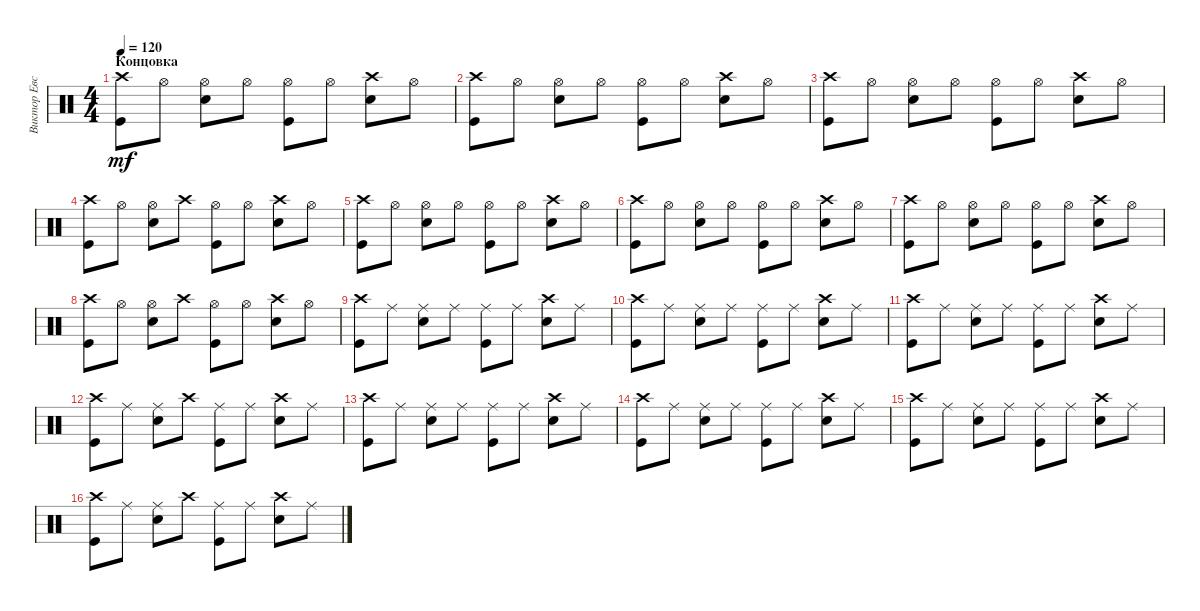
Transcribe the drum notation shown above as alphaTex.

\track ("Виктор Евстратов" "Виктор Евс") {instrument percussion}
\staff {score}
\articulation defaults
\ts (4 4)
\section ("" "Концовка")
\tempo 120
\clef neutral
\ks c
("Kick (hit)" "Crash high (hit)").8{dy mf} "Hi-Hat (open)".8 ("Snare (hit) 2" "Hi-Hat (open)").8 "Hi-Hat (open)".8 ("Kick (hit)" "Hi-Hat (open)").8 "Hi-Hat (open)".8 ("Snare (hit) 2" "Crash high (hit)").8 "Hi-Hat (open)".8 |
("Kick (hit)" "Crash high (hit)").8 "Hi-Hat (open)".8 ("Snare (hit) 2" "Hi-Hat (open)").8 "Hi-Hat (open)".8 ("Kick (hit)" "Hi-Hat (open)").8 "Hi-Hat (open)".8 ("Snare (hit) 2" "Crash high (hit)").8 "Hi-Hat (open)".8 |
("Kick (hit)" "Crash high (hit)").8 "Hi-Hat (open)".8 ("Snare (hit) 2" "Hi-Hat (open)").8 "Hi-Hat (open)".8 ("Kick (hit)" "Hi-Hat (open)").8 "Hi-Hat (open)".8 ("Snare (hit) 2" "Crash high (hit)").8 "Hi-Hat (open)".8 |
("Kick (hit)" "Crash high (hit)").8 "Hi-Hat (open)".8 ("Snare (hit) 2" "Hi-Hat (open)").8 "Crash high (hit)".8 ("Kick (hit)" "Hi-Hat (open)").8 "Hi-Hat (open)".8 ("Snare (hit) 2" "Crash high (hit)").8 "Hi-Hat (open)".8 |
("Kick (hit)" "Crash high (hit)").8 "Hi-Hat (open)".8 ("Snare (hit) 2" "Hi-Hat (open)").8 "Hi-Hat (open)".8 ("Kick (hit)" "Hi-Hat (open)").8 "Hi-Hat (open)".8 ("Snare (hit) 2" "Crash high (hit)").8 "Hi-Hat (open)".8 |
("Kick (hit)" "Crash high (hit)").8 "Hi-Hat (open)".8 ("Snare (hit) 2" "Hi-Hat (open)").8 "Hi-Hat (open)".8 ("Kick (hit)" "Hi-Hat (open)").8 "Hi-Hat (open)".8 ("Snare (hit) 2" "Crash high (hit)").8 "Hi-Hat (open)".8 |
("Kick (hit)" "Crash high (hit)").8 "Hi-Hat (open)".8 ("Snare (hit) 2" "Hi-Hat (open)").8 "Hi-Hat (open)".8 ("Kick (hit)" "Hi-Hat (open)").8 "Hi-Hat (open)".8 ("Snare (hit) 2" "Crash high (hit)").8 "Hi-Hat (open)".8 |
("Kick (hit)" "Crash high (hit)").8 "Hi-Hat (open)".8 ("Snare (hit) 2" "Hi-Hat (open)").8 "Crash high (hit)".8 ("Kick (hit)" "Hi-Hat (open)").8 "Hi-Hat (open)".8 ("Snare (hit) 2" "Crash high (hit)").8 "Hi-Hat (open)".8 |
("Kick (hit)" "Crash high (hit)").8 "Ride (middle)".8 ("Snare (hit) 2" "Ride (middle)").8 "Ride (middle)".8 ("Kick (hit)" "Ride (middle)").8 "Ride (middle)".8 ("Snare (hit) 2" "Crash high (hit)").8 "Ride (middle)".8 |
("Kick (hit)" "Crash high (hit)").8 "Ride (middle)".8 ("Snare (hit) 2" "Ride (middle)").8 "Ride (middle)".8 ("Kick (hit)" "Ride (middle)").8 "Ride (middle)".8 ("Snare (hit) 2" "Crash high (hit)").8 "Ride (middle)".8 |
("Kick (hit)" "Crash high (hit)").8 "Ride (middle)".8 ("Snare (hit) 2" "Ride (middle)").8 "Ride (middle)".8 ("Kick (hit)" "Ride (middle)").8 "Ride (middle)".8 ("Snare (hit) 2" "Crash high (hit)").8 "Ride (middle)".8 |
("Kick (hit)" "Crash high (hit)").8 "Ride (middle)".8 ("Snare (hit) 2" "Ride (middle)").8 "Crash high (hit)".8 ("Kick (hit)" "Ride (middle)").8 "Ride (middle)".8 ("Snare (hit) 2" "Crash high (hit)").8 "Ride (middle)".8 |
("Kick (hit)" "Crash high (hit)").8 "Ride (middle)".8 ("Snare (hit) 2" "Ride (middle)").8 "Ride (middle)".8 ("Kick (hit)" "Ride (middle)").8 "Ride (middle)".8 ("Snare (hit) 2" "Crash high (hit)").8 "Ride (middle)".8 |
("Kick (hit)" "Crash high (hit)").8 "Ride (middle)".8 ("Snare (hit) 2" "Ride (middle)").8 "Ride (middle)".8 ("Kick (hit)" "Ride (middle)").8 "Ride (middle)".8 ("Snare (hit) 2" "Crash high (hit)").8 "Ride (middle)".8 |
("Kick (hit)" "Crash high (hit)").8 "Ride (middle)".8 ("Snare (hit) 2" "Ride (middle)").8 "Ride (middle)".8 ("Kick (hit)" "Ride (middle)").8 "Ride (middle)".8 ("Snare (hit) 2" "Crash high (hit)").8 "Ride (middle)".8 |
("Kick (hit)" "Crash high (hit)").8 "Ride (middle)".8 ("Snare (hit) 2" "Ride (middle)").8 "Crash high (hit)".8 ("Kick (hit)" "Ride (middle)").8 "Ride (middle)".8 ("Snare (hit) 2" "Crash high (hit)").8 "Ride (middle)".8
